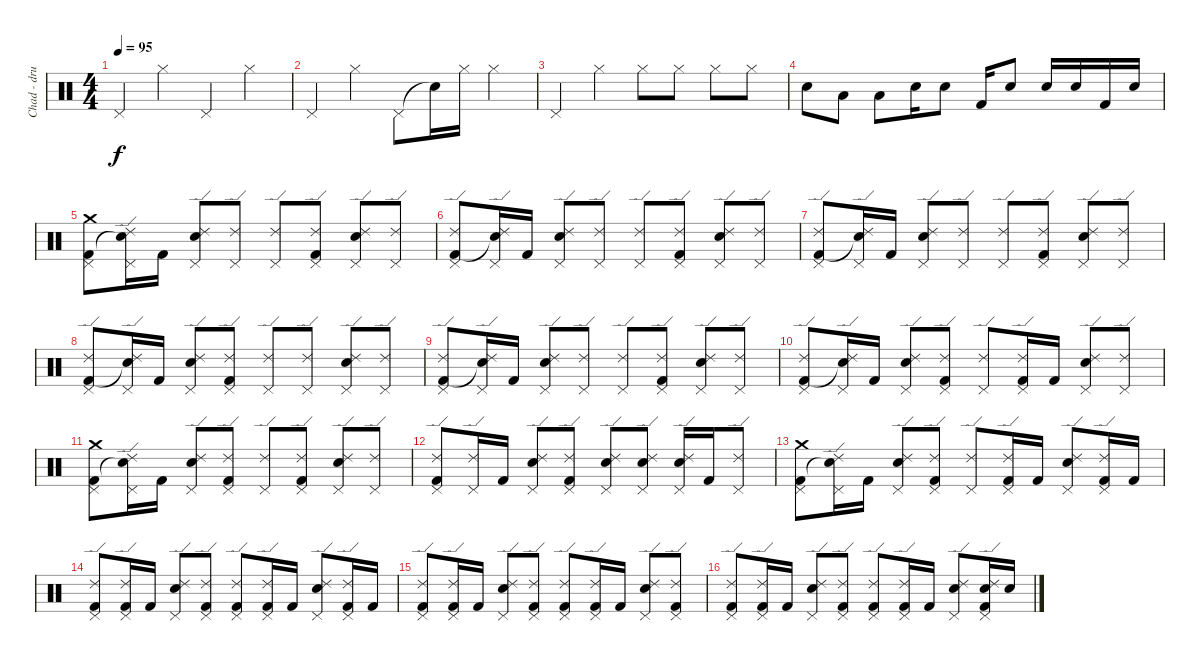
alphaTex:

\track ("Chad - drums" "Chad - dru") {instrument percussion}
\staff {score}
\articulation defaults
\ts (4 4)
\tempo 95
\clef neutral
\ks c "Pedal Hi-Hat (hit)".4{dy f} "Hi-Hat (closed)".4 "Pedal Hi-Hat (hit)".4 "Hi-Hat (closed)".4
|
"Pedal Hi-Hat (hit)".4 "Hi-Hat (closed)".4 "Pedal Hi-Hat (hit)".8 "Snare (hit)"{t}.16 "Hi-Hat (closed)".16 "Hi-Hat (closed)".4 |
"Pedal Hi-Hat (hit)".4 "Hi-Hat (closed)".4 "Hi-Hat (closed)".8 "Hi-Hat (closed)".8 "Hi-Hat (closed)".8 "Hi-Hat (closed)".8 |
"Electric Snare (hit)".8 "Low Tom (hit)".8 "Low Tom (hit)".8 "Electric Snare (hit)".16 "Electric Snare (hit)".8 "Kick (hit) 2".16 "Electric Snare (hit)".8 "Electric Snare (hit)".16 "Electric Snare (hit)".16 "Kick (hit) 2".16 "Electric Snare (hit)".16 |
("Crash medium (hit)" "Pedal Hi-Hat (hit)" "Kick (hit) 2").8 ("Ride (edge) 2" "Pedal Hi-Hat (hit)" "Snare (hit)"{t}).16 "Kick (hit) 2".16 ("Ride (edge) 2" "Pedal Hi-Hat (hit)" "Electric Snare (hit)").8 ("Ride (edge) 2" "Pedal Hi-Hat (hit)").8 ("Ride (edge) 2" "Pedal Hi-Hat (hit)").8 ("Ride (edge) 2" "Pedal Hi-Hat (hit)" "Kick (hit) 2").8 ("Ride (edge) 2" "Pedal Hi-Hat (hit)" "Electric Snare (hit)").8 ("Ride (edge) 2" "Pedal Hi-Hat (hit)").8 |
("Ride (edge) 2" "Pedal Hi-Hat (hit)" "Kick (hit) 2").8 ("Ride (edge) 2" "Pedal Hi-Hat (hit)" "Snare (hit)"{t}).16 "Kick (hit) 2".16 ("Ride (edge) 2" "Pedal Hi-Hat (hit)" "Electric Snare (hit)").8 ("Ride (edge) 2" "Pedal Hi-Hat (hit)").8 ("Ride (edge) 2" "Pedal Hi-Hat (hit)").8 ("Ride (edge) 2" "Pedal Hi-Hat (hit)" "Kick (hit) 2").8 ("Ride (edge) 2" "Pedal Hi-Hat (hit)" "Electric Snare (hit)").8 ("Ride (edge) 2" "Pedal Hi-Hat (hit)").8 |
("Ride (edge) 2" "Pedal Hi-Hat (hit)" "Kick (hit) 2").8 ("Ride (edge) 2" "Pedal Hi-Hat (hit)" "Snare (hit)"{t}).16 "Kick (hit) 2".16 ("Ride (edge) 2" "Pedal Hi-Hat (hit)" "Electric Snare (hit)").8 ("Ride (edge) 2" "Pedal Hi-Hat (hit)").8 ("Ride (edge) 2" "Pedal Hi-Hat (hit)").8 ("Ride (edge) 2" "Pedal Hi-Hat (hit)" "Kick (hit) 2").8 ("Ride (edge) 2" "Pedal Hi-Hat (hit)" "Electric Snare (hit)").8 ("Ride (edge) 2" "Pedal Hi-Hat (hit)").8 |
("Ride (edge) 2" "Pedal Hi-Hat (hit)" "Kick (hit) 2").8 ("Ride (edge) 2" "Pedal Hi-Hat (hit)" "Snare (hit)"{t}).16 "Kick (hit) 2".16 ("Ride (edge) 2" "Pedal Hi-Hat (hit)" "Electric Snare (hit)").8 ("Ride (edge) 2" "Pedal Hi-Hat (hit)" "Kick (hit) 2").8 ("Ride (edge) 2" "Pedal Hi-Hat (hit)").8 ("Ride (edge) 2" "Pedal Hi-Hat (hit)").8 ("Ride (edge) 2" "Pedal Hi-Hat (hit)" "Electric Snare (hit)").8 ("Ride (edge) 2" "Pedal Hi-Hat (hit)").8 |
("Ride (edge) 2" "Pedal Hi-Hat (hit)" "Kick (hit) 2").8 ("Ride (edge) 2" "Pedal Hi-Hat (hit)" "Snare (hit)"{t}).16 "Kick (hit) 2".16 ("Ride (edge) 2" "Pedal Hi-Hat (hit)" "Electric Snare (hit)").8 ("Ride (edge) 2" "Pedal Hi-Hat (hit)").8 ("Ride (edge) 2" "Pedal Hi-Hat (hit)").8 ("Ride (edge) 2" "Pedal Hi-Hat (hit)" "Kick (hit) 2").8 ("Ride (edge) 2" "Pedal Hi-Hat (hit)" "Electric Snare (hit)").8 ("Ride (edge) 2" "Pedal Hi-Hat (hit)").8 |
("Ride (edge) 2" "Pedal Hi-Hat (hit)" "Kick (hit) 2").8 ("Ride (edge) 2" "Pedal Hi-Hat (hit)" "Snare (hit)"{t}).16 "Kick (hit) 2".16 ("Ride (edge) 2" "Pedal Hi-Hat (hit)" "Electric Snare (hit)").8 ("Ride (edge) 2" "Pedal Hi-Hat (hit)" "Kick (hit) 2").8 ("Ride (edge) 2" "Pedal Hi-Hat (hit)").8 ("Ride (edge) 2" "Pedal Hi-Hat (hit)" "Kick (hit) 2").16 "Kick (hit) 2".16 ("Ride (edge) 2" "Pedal Hi-Hat (hit)" "Electric Snare (hit)").8 ("Ride (edge) 2" "Pedal Hi-Hat (hit)").8 |
("Crash medium (hit)" "Pedal Hi-Hat (hit)" "Kick (hit) 2").8 ("Ride (edge) 2" "Pedal Hi-Hat (hit)" "Snare (hit)"{t}).16 "Kick (hit) 2".16 ("Ride (edge) 2" "Pedal Hi-Hat (hit)" "Electric Snare (hit)").8 ("Ride (edge) 2" "Pedal Hi-Hat (hit)" "Kick (hit) 2").8 ("Ride (edge) 2" "Pedal Hi-Hat (hit)").8 ("Ride (edge) 2" "Pedal Hi-Hat (hit)" "Kick (hit) 2").8 ("Ride (edge) 2" "Pedal Hi-Hat (hit)" "Electric Snare (hit)").8 ("Ride (edge) 2" "Pedal Hi-Hat (hit)").8 |
("Ride (edge) 2" "Pedal Hi-Hat (hit)" "Kick (hit) 2").8 ("Ride (edge) 2" "Pedal Hi-Hat (hit)").16 "Kick (hit) 2".16 ("Ride (edge) 2" "Pedal Hi-Hat (hit)" "Electric Snare (hit)").8 ("Ride (edge) 2" "Pedal Hi-Hat (hit)" "Kick (hit) 2").8 ("Ride (edge) 2" "Pedal Hi-Hat (hit)" "Electric Snare (hit)").8 ("Ride (edge) 2" "Pedal Hi-Hat (hit)" "Electric Snare (hit)").8 ("Ride (edge) 2" "Pedal Hi-Hat (hit)" "Electric Snare (hit)").16 "Kick (hit) 2".16 ("Ride (edge) 2" "Pedal Hi-Hat (hit)").8 |
("Crash medium (hit)" "Pedal Hi-Hat (hit)" "Kick (hit) 2").8 ("Ride (edge) 2" "Pedal Hi-Hat (hit)" "Snare (hit)"{t}).16 "Kick (hit) 2".16 ("Ride (edge) 2" "Pedal Hi-Hat (hit)" "Electric Snare (hit)").8 ("Ride (edge) 2" "Pedal Hi-Hat (hit)" "Kick (hit) 2").8 ("Ride (edge) 2" "Pedal Hi-Hat (hit)").8 ("Ride (edge) 2" "Pedal Hi-Hat (hit)" "Kick (hit) 2").16 "Kick (hit) 2".16 ("Ride (edge) 2" "Pedal Hi-Hat (hit)" "Electric Snare (hit)").8 ("Ride (edge) 2" "Pedal Hi-Hat (hit)" "Kick (hit) 2").16 "Kick (hit) 2".16 |
("Ride (edge) 2" "Pedal Hi-Hat (hit)" "Kick (hit) 2").8 ("Ride (edge) 2" "Pedal Hi-Hat (hit)" "Kick (hit) 2").16 "Kick (hit) 2".16 ("Ride (edge) 2" "Pedal Hi-Hat (hit)" "Electric Snare (hit)").8 ("Ride (edge) 2" "Pedal Hi-Hat (hit)" "Kick (hit) 2").8 ("Ride (edge) 2" "Pedal Hi-Hat (hit)" "Kick (hit) 2").8 ("Ride (edge) 2" "Pedal Hi-Hat (hit)" "Kick (hit) 2").16 "Kick (hit) 2".16 ("Ride (edge) 2" "Pedal Hi-Hat (hit)" "Electric Snare (hit)").8 ("Ride (edge) 2" "Pedal Hi-Hat (hit)" "Kick (hit) 2").16 "Kick (hit) 2".16 |
("Ride (edge) 2" "Pedal Hi-Hat (hit)" "Kick (hit) 2").8 ("Ride (edge) 2" "Pedal Hi-Hat (hit)" "Kick (hit) 2").16 "Kick (hit) 2".16 ("Ride (edge) 2" "Pedal Hi-Hat (hit)" "Electric Snare (hit)").8 ("Ride (edge) 2" "Pedal Hi-Hat (hit)" "Kick (hit) 2").8 ("Ride (edge) 2" "Pedal Hi-Hat (hit)" "Kick (hit) 2").8 ("Ride (edge) 2" "Pedal Hi-Hat (hit)" "Kick (hit) 2").16 "Kick (hit) 2".16 ("Ride (edge) 2" "Pedal Hi-Hat (hit)" "Electric Snare (hit)").8 ("Ride (edge) 2" "Pedal Hi-Hat (hit)" "Kick (hit) 2").8 |
("Ride (edge) 2" "Pedal Hi-Hat (hit)" "Kick (hit) 2").8 ("Ride (edge) 2" "Pedal Hi-Hat (hit)" "Kick (hit) 2").16 "Kick (hit) 2".16 ("Ride (edge) 2" "Pedal Hi-Hat (hit)" "Electric Snare (hit)").8 ("Ride (edge) 2" "Pedal Hi-Hat (hit)" "Kick (hit) 2").8 ("Ride (edge) 2" "Pedal Hi-Hat (hit)" "Kick (hit) 2").8 ("Ride (edge) 2" "Pedal Hi-Hat (hit)" "Kick (hit) 2").16 "Kick (hit) 2".16 ("Ride (edge) 2" "Pedal Hi-Hat (hit)" "Electric Snare (hit)").8 ("Ride (edge) 2" "Pedal Hi-Hat (hit)" "Electric Snare (hit)" "Kick (hit) 2").16 "Electric Snare (hit)".16
